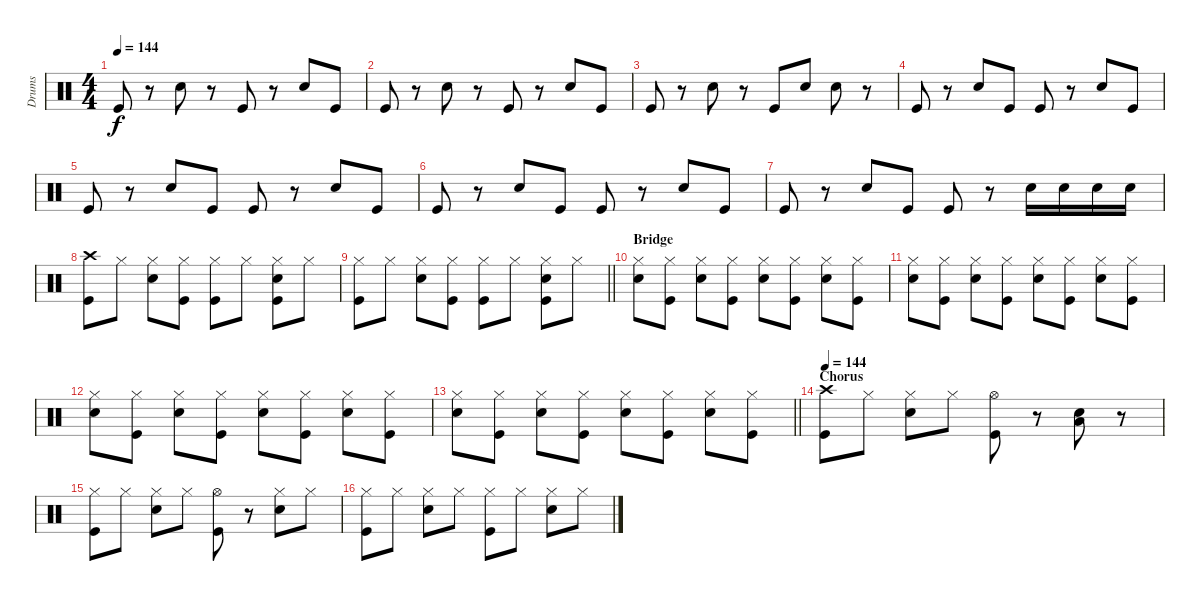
\track ("Drums" "Drums") {instrument percussion}
\staff {score}
\articulation defaults
\ts (4 4)
\tempo 144
\clef neutral
\ks c "Kick (hit)".8{dy f}
r.8 "Snare (hit) 2".8 r.8 "Kick (hit)".8 r.8 "Snare (hit) 2".8 "Kick (hit)".8 |
"Kick (hit)".8 r.8 "Snare (hit) 2".8 r.8 "Kick (hit)".8 r.8 "Snare (hit) 2".8 "Kick (hit)".8 |
"Kick (hit)".8 r.8 "Snare (hit) 2".8 r.8 "Kick (hit)".8 "Snare (hit) 2".8 "Snare (hit) 2".8 r.8 |
"Kick (hit)".8 r.8 "Snare (hit) 2".8 "Kick (hit)".8 "Kick (hit)".8 r.8 "Snare (hit) 2".8 "Kick (hit)".8 |
"Kick (hit)".8 r.8 "Snare (hit) 2".8 "Kick (hit)".8 "Kick (hit)".8 r.8 "Snare (hit) 2".8 "Kick (hit)".8 |
"Kick (hit)".8 r.8 "Snare (hit) 2".8 "Kick (hit)".8 "Kick (hit)".8 r.8 "Snare (hit) 2".8 "Kick (hit)".8 |
"Kick (hit)".8 r.8 "Snare (hit) 2".8 "Kick (hit)".8 "Kick (hit)".8 r.8 "Snare (hit) 2".16 "Snare (hit) 2".16 "Snare (hit) 2".16 "Snare (hit) 2".16 |
("Crash high (hit)" "Kick (hit)").8 "Hi-Hat (closed)".8 ("Hi-Hat (closed)" "Snare (hit) 2").8 ("Hi-Hat (closed)" "Kick (hit)").8 ("Hi-Hat (closed)" "Kick (hit)").8 "Hi-Hat (closed)".8 ("Hi-Hat (closed)" "Snare (hit) 2" "Kick (hit)").8 "Hi-Hat (closed)".8 |
\barLineRight lightlight
("Hi-Hat (closed)" "Kick (hit)").8 "Hi-Hat (closed)".8 ("Hi-Hat (closed)" "Snare (hit) 2").8 ("Hi-Hat (closed)" "Kick (hit)").8 ("Hi-Hat (closed)" "Kick (hit)").8 "Hi-Hat (closed)".8 ("Hi-Hat (closed)" "Kick (hit)" "Snare (hit) 2").8 "Hi-Hat (closed)".8 |
\section ("" "Bridge")
("Hi-Hat (closed)" "Snare (hit) 2").8 ("Hi-Hat (closed)" "Kick (hit)").8 ("Hi-Hat (closed)" "Snare (hit) 2").8 ("Hi-Hat (closed)" "Kick (hit)").8 ("Hi-Hat (closed)" "Snare (hit) 2").8 ("Hi-Hat (closed)" "Kick (hit)").8 ("Hi-Hat (closed)" "Snare (hit) 2").8 ("Hi-Hat (closed)" "Kick (hit)").8 |
("Hi-Hat (closed)" "Snare (hit) 2").8 ("Hi-Hat (closed)" "Kick (hit)").8 ("Hi-Hat (closed)" "Snare (hit) 2").8 ("Hi-Hat (closed)" "Kick (hit)").8 ("Hi-Hat (closed)" "Snare (hit) 2").8 ("Hi-Hat (closed)" "Kick (hit)").8 ("Hi-Hat (closed)" "Snare (hit) 2").8 ("Hi-Hat (closed)" "Kick (hit)").8 |
("Hi-Hat (closed)" "Snare (hit) 2").8 ("Hi-Hat (closed)" "Kick (hit)").8 ("Hi-Hat (closed)" "Snare (hit) 2").8 ("Hi-Hat (closed)" "Kick (hit)").8 ("Hi-Hat (closed)" "Snare (hit) 2").8 ("Hi-Hat (closed)" "Kick (hit)").8 ("Hi-Hat (closed)" "Snare (hit) 2").8 ("Hi-Hat (closed)" "Kick (hit)").8 |
\barLineRight lightlight
("Hi-Hat (closed)" "Snare (hit) 2").8 ("Hi-Hat (closed)" "Kick (hit)").8 ("Hi-Hat (closed)" "Snare (hit) 2").8 ("Hi-Hat (closed)" "Kick (hit)").8 ("Hi-Hat (closed)" "Snare (hit) 2").8 ("Hi-Hat (closed)" "Kick (hit)").8 ("Hi-Hat (closed)" "Snare (hit) 2").8 ("Hi-Hat (closed)" "Kick (hit)").8 |
\section ("" "Chorus")
\tempo 144
("Crash high (hit)" "Kick (hit)").8 "Hi-Hat (closed)".8 ("Hi-Hat (closed)" "Snare (hit) 2").8 "Hi-Hat (closed)".8 ("Hi-Hat (open)" "Kick (hit)").8 r.8 ("Snare (hit) 2" "Low Floor Tom (hit)").8 r.8 |
("Hi-Hat (closed)" "Kick (hit)").8 "Hi-Hat (closed)".8 ("Hi-Hat (closed)" "Snare (hit) 2").8 "Hi-Hat (closed)".8 ("Hi-Hat (open)" "Kick (hit)").8 r.8 ("Hi-Hat (closed)" "Snare (hit) 2").8 "Hi-Hat (closed)".8 |
("Hi-Hat (closed)" "Kick (hit)").8 "Hi-Hat (closed)".8 ("Hi-Hat (closed)" "Snare (hit) 2").8 "Hi-Hat (closed)".8 ("Hi-Hat (closed)" "Kick (hit)").8 "Hi-Hat (closed)".8 ("Hi-Hat (closed)" "Snare (hit) 2").8 "Hi-Hat (closed)".8
